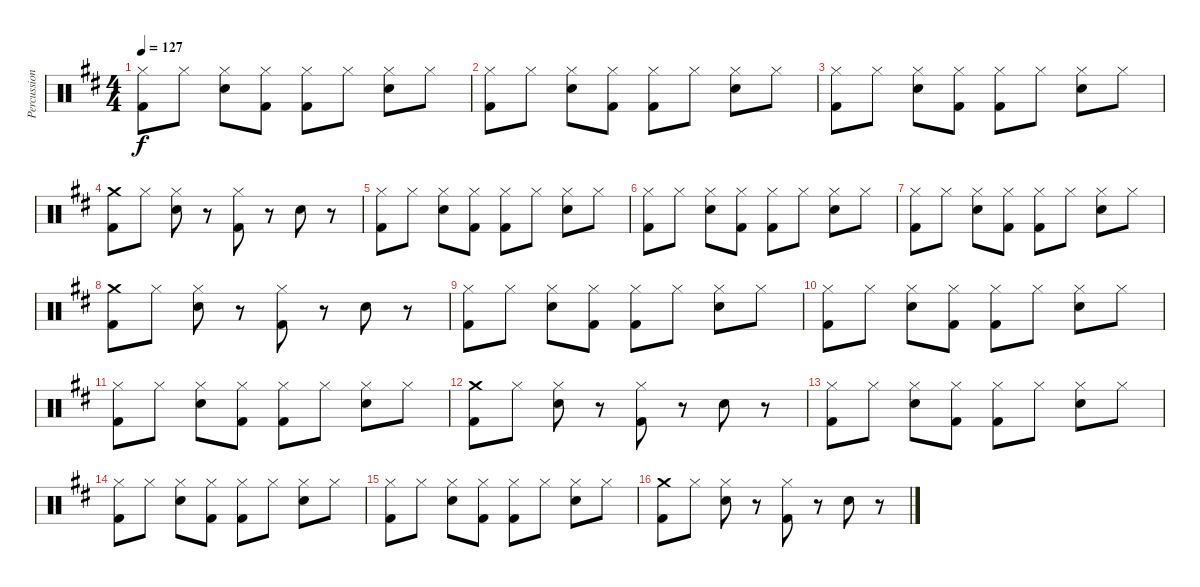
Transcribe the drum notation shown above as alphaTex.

\track ("Percussion" "Percussion") {instrument percussion}
\staff {score}
\articulation defaults
\ts (4 4)
\tempo 127
\clef neutral
\ks d
("Hi-Hat (closed)" "Kick (hit) 2").8{dy f} "Hi-Hat (closed)".8 ("Hi-Hat (closed)" "Electric Snare (hit)").8 ("Hi-Hat (closed)" "Kick (hit) 2").8 ("Hi-Hat (closed)" "Kick (hit) 2").8 "Hi-Hat (closed)".8 ("Hi-Hat (closed)" "Electric Snare (hit)").8 "Hi-Hat (closed)".8 |
("Hi-Hat (closed)" "Kick (hit) 2").8 "Hi-Hat (closed)".8 ("Hi-Hat (closed)" "Electric Snare (hit)").8 ("Hi-Hat (closed)" "Kick (hit) 2").8 ("Hi-Hat (closed)" "Kick (hit) 2").8 "Hi-Hat (closed)".8 ("Hi-Hat (closed)" "Electric Snare (hit)").8 "Hi-Hat (closed)".8 |
("Hi-Hat (closed)" "Kick (hit) 2").8 "Hi-Hat (closed)".8 ("Hi-Hat (closed)" "Electric Snare (hit)").8 ("Hi-Hat (closed)" "Kick (hit) 2").8 ("Hi-Hat (closed)" "Kick (hit) 2").8 "Hi-Hat (closed)".8 ("Hi-Hat (closed)" "Electric Snare (hit)").8 "Hi-Hat (closed)".8 |
("Crash medium (hit)" "Kick (hit) 2").8 "Hi-Hat (closed)".8 ("Hi-Hat (closed)" "Electric Snare (hit)").8 r.8 ("Hi-Hat (closed)" "Kick (hit) 2").8 r.8 "Electric Snare (hit)".8 r.8 |
("Hi-Hat (closed)" "Kick (hit) 2").8 "Hi-Hat (closed)".8 ("Hi-Hat (closed)" "Electric Snare (hit)").8 ("Hi-Hat (closed)" "Kick (hit) 2").8 ("Hi-Hat (closed)" "Kick (hit) 2").8 "Hi-Hat (closed)".8 ("Hi-Hat (closed)" "Electric Snare (hit)").8 "Hi-Hat (closed)".8 |
("Hi-Hat (closed)" "Kick (hit) 2").8 "Hi-Hat (closed)".8 ("Hi-Hat (closed)" "Electric Snare (hit)").8 ("Hi-Hat (closed)" "Kick (hit) 2").8 ("Hi-Hat (closed)" "Kick (hit) 2").8 "Hi-Hat (closed)".8 ("Hi-Hat (closed)" "Electric Snare (hit)").8 "Hi-Hat (closed)".8 |
("Hi-Hat (closed)" "Kick (hit) 2").8 "Hi-Hat (closed)".8 ("Hi-Hat (closed)" "Electric Snare (hit)").8 ("Hi-Hat (closed)" "Kick (hit) 2").8 ("Hi-Hat (closed)" "Kick (hit) 2").8 "Hi-Hat (closed)".8 ("Hi-Hat (closed)" "Electric Snare (hit)").8 "Hi-Hat (closed)".8 |
("Crash medium (hit)" "Kick (hit) 2").8 "Hi-Hat (closed)".8 ("Hi-Hat (closed)" "Electric Snare (hit)").8 r.8 ("Hi-Hat (closed)" "Kick (hit) 2").8 r.8 "Electric Snare (hit)".8 r.8 |
("Hi-Hat (closed)" "Kick (hit) 2").8 "Hi-Hat (closed)".8 ("Hi-Hat (closed)" "Electric Snare (hit)").8 ("Hi-Hat (closed)" "Kick (hit) 2").8 ("Hi-Hat (closed)" "Kick (hit) 2").8 "Hi-Hat (closed)".8 ("Hi-Hat (closed)" "Electric Snare (hit)").8 "Hi-Hat (closed)".8 |
("Hi-Hat (closed)" "Kick (hit) 2").8 "Hi-Hat (closed)".8 ("Hi-Hat (closed)" "Electric Snare (hit)").8 ("Hi-Hat (closed)" "Kick (hit) 2").8 ("Hi-Hat (closed)" "Kick (hit) 2").8 "Hi-Hat (closed)".8 ("Hi-Hat (closed)" "Electric Snare (hit)").8 "Hi-Hat (closed)".8 |
("Hi-Hat (closed)" "Kick (hit) 2").8 "Hi-Hat (closed)".8 ("Hi-Hat (closed)" "Electric Snare (hit)").8 ("Hi-Hat (closed)" "Kick (hit) 2").8 ("Hi-Hat (closed)" "Kick (hit) 2").8 "Hi-Hat (closed)".8 ("Hi-Hat (closed)" "Electric Snare (hit)").8 "Hi-Hat (closed)".8 |
("Crash medium (hit)" "Kick (hit) 2").8 "Hi-Hat (closed)".8 ("Hi-Hat (closed)" "Electric Snare (hit)").8 r.8 ("Hi-Hat (closed)" "Kick (hit) 2").8 r.8 "Electric Snare (hit)".8 r.8 |
("Hi-Hat (closed)" "Kick (hit) 2").8 "Hi-Hat (closed)".8 ("Hi-Hat (closed)" "Electric Snare (hit)").8 ("Hi-Hat (closed)" "Kick (hit) 2").8 ("Hi-Hat (closed)" "Kick (hit) 2").8 "Hi-Hat (closed)".8 ("Hi-Hat (closed)" "Electric Snare (hit)").8 "Hi-Hat (closed)".8 |
("Hi-Hat (closed)" "Kick (hit) 2").8 "Hi-Hat (closed)".8 ("Hi-Hat (closed)" "Electric Snare (hit)").8 ("Hi-Hat (closed)" "Kick (hit) 2").8 ("Hi-Hat (closed)" "Kick (hit) 2").8 "Hi-Hat (closed)".8 ("Hi-Hat (closed)" "Electric Snare (hit)").8 "Hi-Hat (closed)".8 |
("Hi-Hat (closed)" "Kick (hit) 2").8 "Hi-Hat (closed)".8 ("Hi-Hat (closed)" "Electric Snare (hit)").8 ("Hi-Hat (closed)" "Kick (hit) 2").8 ("Hi-Hat (closed)" "Kick (hit) 2").8 "Hi-Hat (closed)".8 ("Hi-Hat (closed)" "Electric Snare (hit)").8 "Hi-Hat (closed)".8 |
("Crash medium (hit)" "Kick (hit) 2").8 "Hi-Hat (closed)".8 ("Hi-Hat (closed)" "Electric Snare (hit)").8 r.8 ("Hi-Hat (closed)" "Kick (hit) 2").8 r.8 "Electric Snare (hit)".8 r.8
